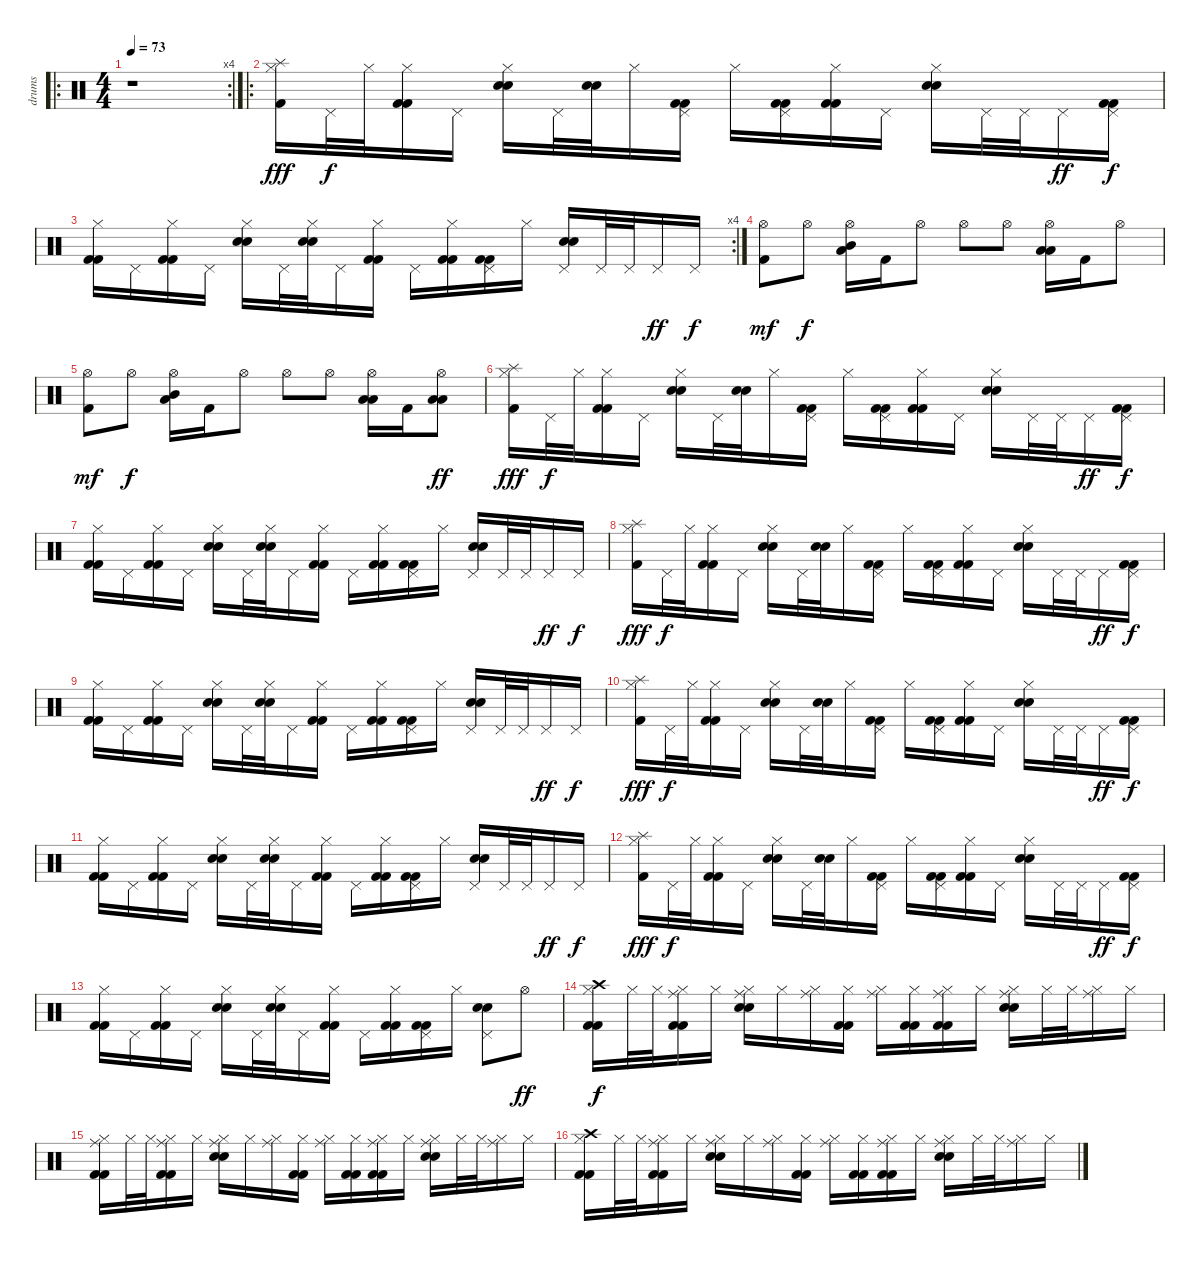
\track ("drums" "drums") {instrument percussion}
\staff {score}
\articulation defaults
\ro
\rc 4
\ts (4 4)
\tempo 73
\clef neutral
\ks c
r.1{dy fff} |
\ro
("Hi-Hat (closed)" "Kick (hit) 2" "Splash (hit)").16 "Pedal Hi-Hat (hit)".32{dy f} "Hi-Hat (closed)".32 ("Hi-Hat (closed)" "Kick (hit) 2" "Kick (hit) 2").16 "Pedal Hi-Hat (hit)".16 ("Hi-Hat (closed)" "Electric Snare (hit)" "Electric Snare (hit)").16 "Pedal Hi-Hat (hit)".32 ("Electric Snare (hit)" "Electric Snare (hit)").32 "Hi-Hat (closed)".16 ("Pedal Hi-Hat (hit)" "Kick (hit) 2" "Kick (hit) 2").16 "Hi-Hat (closed)".16 ("Pedal Hi-Hat (hit)" "Kick (hit) 2" "Kick (hit) 2").16 ("Hi-Hat (closed)" "Kick (hit) 2" "Kick (hit) 2").16 "Pedal Hi-Hat (hit)".16 ("Hi-Hat (closed)" "Electric Snare (hit)" "Electric Snare (hit)").16 "Pedal Hi-Hat (hit)".32 "Pedal Hi-Hat (hit)".32 "Pedal Hi-Hat (hit)".16{dy ff} ("Pedal Hi-Hat (hit)" "Kick (hit) 2" "Kick (hit) 2").16{dy f} |
\rc 4
("Hi-Hat (closed)" "Kick (hit) 2" "Kick (hit) 2").16 "Pedal Hi-Hat (hit)".16 ("Hi-Hat (closed)" "Kick (hit) 2" "Kick (hit) 2").16 "Pedal Hi-Hat (hit)".16 ("Hi-Hat (closed)" "Electric Snare (hit)" "Electric Snare (hit)").16 "Pedal Hi-Hat (hit)".32 ("Hi-Hat (closed)" "Electric Snare (hit)" "Electric Snare (hit)").32 "Pedal Hi-Hat (hit)".16 ("Hi-Hat (closed)" "Kick (hit) 2" "Kick (hit) 2").16 "Pedal Hi-Hat (hit)".16 ("Hi-Hat (closed)" "Kick (hit) 2" "Kick (hit) 2").16 ("Pedal Hi-Hat (hit)" "Kick (hit) 2" "Kick (hit) 2").16 "Hi-Hat (closed)".16 ("Pedal Hi-Hat (hit)" "Electric Snare (hit)" "Electric Snare (hit)").16 "Pedal Hi-Hat (hit)".32 "Pedal Hi-Hat (hit)".32 "Pedal Hi-Hat (hit)".16{dy ff} "Pedal Hi-Hat (hit)".16{dy f} |
("Hi-Hat (open)" "Kick (hit) 2").8{dy mf} "Hi-Hat (open)".8{dy f} ("Hi-Hat (open)" "Mid Tom (hit)" "Low Tom (hit)").16{bu 120} "Kick (hit) 2".16 "Hi-Hat (open)".8 "Hi-Hat (open)".8 "Hi-Hat (open)".8 ("Hi-Hat (open)" "Low Tom (hit)" "Low Floor Tom (hit)").16{bu 120} "Kick (hit) 2".16 "Hi-Hat (open)".8 |
("Hi-Hat (open)" "Kick (hit) 2").8{dy mf} "Hi-Hat (open)".8{dy f} ("Hi-Hat (open)" "Mid Tom (hit)" "Low Tom (hit)").16{bu 120} "Kick (hit) 2".16 "Hi-Hat (open)".8 "Hi-Hat (open)".8 "Hi-Hat (open)".8 ("Hi-Hat (open)" "Low Tom (hit)" "Low Floor Tom (hit)").16{bu 120} "Kick (hit) 2".16 ("Hi-Hat (open)" "Low Tom (hit)" "Low Floor Tom (hit)").8{bu 60 dy ff} |
("Hi-Hat (closed)" "Kick (hit) 2" "Splash (hit)").16{dy fff} "Pedal Hi-Hat (hit)".32{dy f} "Hi-Hat (closed)".32 ("Hi-Hat (closed)" "Kick (hit) 2" "Kick (hit) 2").16 "Pedal Hi-Hat (hit)".16 ("Hi-Hat (closed)" "Electric Snare (hit)" "Electric Snare (hit)").16 "Pedal Hi-Hat (hit)".32 ("Electric Snare (hit)" "Electric Snare (hit)").32 "Hi-Hat (closed)".16 ("Pedal Hi-Hat (hit)" "Kick (hit) 2" "Kick (hit) 2").16 "Hi-Hat (closed)".16 ("Pedal Hi-Hat (hit)" "Kick (hit) 2" "Kick (hit) 2").16 ("Hi-Hat (closed)" "Kick (hit) 2" "Kick (hit) 2").16 "Pedal Hi-Hat (hit)".16 ("Hi-Hat (closed)" "Electric Snare (hit)" "Electric Snare (hit)").16 "Pedal Hi-Hat (hit)".32 "Pedal Hi-Hat (hit)".32 "Pedal Hi-Hat (hit)".16{dy ff} ("Pedal Hi-Hat (hit)" "Kick (hit) 2" "Kick (hit) 2").16{dy f} |
("Hi-Hat (closed)" "Kick (hit) 2" "Kick (hit) 2").16 "Pedal Hi-Hat (hit)".16 ("Hi-Hat (closed)" "Kick (hit) 2" "Kick (hit) 2").16 "Pedal Hi-Hat (hit)".16 ("Hi-Hat (closed)" "Electric Snare (hit)" "Electric Snare (hit)").16 "Pedal Hi-Hat (hit)".32 ("Hi-Hat (closed)" "Electric Snare (hit)" "Electric Snare (hit)").32 "Pedal Hi-Hat (hit)".16 ("Hi-Hat (closed)" "Kick (hit) 2" "Kick (hit) 2").16 "Pedal Hi-Hat (hit)".16 ("Hi-Hat (closed)" "Kick (hit) 2" "Kick (hit) 2").16 ("Pedal Hi-Hat (hit)" "Kick (hit) 2" "Kick (hit) 2").16 "Hi-Hat (closed)".16 ("Pedal Hi-Hat (hit)" "Electric Snare (hit)" "Electric Snare (hit)").16 "Pedal Hi-Hat (hit)".32 "Pedal Hi-Hat (hit)".32 "Pedal Hi-Hat (hit)".16{dy ff} "Pedal Hi-Hat (hit)".16{dy f} |
("Hi-Hat (closed)" "Kick (hit) 2" "Splash (hit)").16{dy fff} "Pedal Hi-Hat (hit)".32{dy f} "Hi-Hat (closed)".32 ("Hi-Hat (closed)" "Kick (hit) 2" "Kick (hit) 2").16 "Pedal Hi-Hat (hit)".16 ("Hi-Hat (closed)" "Electric Snare (hit)" "Electric Snare (hit)").16 "Pedal Hi-Hat (hit)".32 ("Electric Snare (hit)" "Electric Snare (hit)").32 "Hi-Hat (closed)".16 ("Pedal Hi-Hat (hit)" "Kick (hit) 2" "Kick (hit) 2").16 "Hi-Hat (closed)".16 ("Pedal Hi-Hat (hit)" "Kick (hit) 2" "Kick (hit) 2").16 ("Hi-Hat (closed)" "Kick (hit) 2" "Kick (hit) 2").16 "Pedal Hi-Hat (hit)".16 ("Hi-Hat (closed)" "Electric Snare (hit)" "Electric Snare (hit)").16 "Pedal Hi-Hat (hit)".32 "Pedal Hi-Hat (hit)".32 "Pedal Hi-Hat (hit)".16{dy ff} ("Pedal Hi-Hat (hit)" "Kick (hit) 2" "Kick (hit) 2").16{dy f} |
("Hi-Hat (closed)" "Kick (hit) 2" "Kick (hit) 2").16 "Pedal Hi-Hat (hit)".16 ("Hi-Hat (closed)" "Kick (hit) 2" "Kick (hit) 2").16 "Pedal Hi-Hat (hit)".16 ("Hi-Hat (closed)" "Electric Snare (hit)" "Electric Snare (hit)").16 "Pedal Hi-Hat (hit)".32 ("Hi-Hat (closed)" "Electric Snare (hit)" "Electric Snare (hit)").32 "Pedal Hi-Hat (hit)".16 ("Hi-Hat (closed)" "Kick (hit) 2" "Kick (hit) 2").16 "Pedal Hi-Hat (hit)".16 ("Hi-Hat (closed)" "Kick (hit) 2" "Kick (hit) 2").16 ("Pedal Hi-Hat (hit)" "Kick (hit) 2" "Kick (hit) 2").16 "Hi-Hat (closed)".16 ("Pedal Hi-Hat (hit)" "Electric Snare (hit)" "Electric Snare (hit)").16 "Pedal Hi-Hat (hit)".32 "Pedal Hi-Hat (hit)".32 "Pedal Hi-Hat (hit)".16{dy ff} "Pedal Hi-Hat (hit)".16{dy f} |
("Hi-Hat (closed)" "Kick (hit) 2" "Splash (hit)").16{dy fff} "Pedal Hi-Hat (hit)".32{dy f} "Hi-Hat (closed)".32 ("Hi-Hat (closed)" "Kick (hit) 2" "Kick (hit) 2").16 "Pedal Hi-Hat (hit)".16 ("Hi-Hat (closed)" "Electric Snare (hit)" "Electric Snare (hit)").16 "Pedal Hi-Hat (hit)".32 ("Electric Snare (hit)" "Electric Snare (hit)").32 "Hi-Hat (closed)".16 ("Pedal Hi-Hat (hit)" "Kick (hit) 2" "Kick (hit) 2").16 "Hi-Hat (closed)".16 ("Pedal Hi-Hat (hit)" "Kick (hit) 2" "Kick (hit) 2").16 ("Hi-Hat (closed)" "Kick (hit) 2" "Kick (hit) 2").16 "Pedal Hi-Hat (hit)".16 ("Hi-Hat (closed)" "Electric Snare (hit)" "Electric Snare (hit)").16 "Pedal Hi-Hat (hit)".32 "Pedal Hi-Hat (hit)".32 "Pedal Hi-Hat (hit)".16{dy ff} ("Pedal Hi-Hat (hit)" "Kick (hit) 2" "Kick (hit) 2").16{dy f} |
("Hi-Hat (closed)" "Kick (hit) 2" "Kick (hit) 2").16 "Pedal Hi-Hat (hit)".16 ("Hi-Hat (closed)" "Kick (hit) 2" "Kick (hit) 2").16 "Pedal Hi-Hat (hit)".16 ("Hi-Hat (closed)" "Electric Snare (hit)" "Electric Snare (hit)").16 "Pedal Hi-Hat (hit)".32 ("Hi-Hat (closed)" "Electric Snare (hit)" "Electric Snare (hit)").32 "Pedal Hi-Hat (hit)".16 ("Hi-Hat (closed)" "Kick (hit) 2" "Kick (hit) 2").16 "Pedal Hi-Hat (hit)".16 ("Hi-Hat (closed)" "Kick (hit) 2" "Kick (hit) 2").16 ("Pedal Hi-Hat (hit)" "Kick (hit) 2" "Kick (hit) 2").16 "Hi-Hat (closed)".16 ("Pedal Hi-Hat (hit)" "Electric Snare (hit)" "Electric Snare (hit)").16 "Pedal Hi-Hat (hit)".32 "Pedal Hi-Hat (hit)".32 "Pedal Hi-Hat (hit)".16{dy ff} "Pedal Hi-Hat (hit)".16{dy f} |
("Hi-Hat (closed)" "Kick (hit) 2" "Splash (hit)").16{dy fff} "Pedal Hi-Hat (hit)".32{dy f} "Hi-Hat (closed)".32 ("Hi-Hat (closed)" "Kick (hit) 2" "Kick (hit) 2").16 "Pedal Hi-Hat (hit)".16 ("Hi-Hat (closed)" "Electric Snare (hit)" "Electric Snare (hit)").16 "Pedal Hi-Hat (hit)".32 ("Electric Snare (hit)" "Electric Snare (hit)").32 "Hi-Hat (closed)".16 ("Pedal Hi-Hat (hit)" "Kick (hit) 2" "Kick (hit) 2").16 "Hi-Hat (closed)".16 ("Pedal Hi-Hat (hit)" "Kick (hit) 2" "Kick (hit) 2").16 ("Hi-Hat (closed)" "Kick (hit) 2" "Kick (hit) 2").16 "Pedal Hi-Hat (hit)".16 ("Hi-Hat (closed)" "Electric Snare (hit)" "Electric Snare (hit)").16 "Pedal Hi-Hat (hit)".32 "Pedal Hi-Hat (hit)".32 "Pedal Hi-Hat (hit)".16{dy ff} ("Pedal Hi-Hat (hit)" "Kick (hit) 2" "Kick (hit) 2").16{dy f} |
("Hi-Hat (closed)" "Kick (hit) 2" "Kick (hit) 2").16 "Pedal Hi-Hat (hit)".16 ("Hi-Hat (closed)" "Kick (hit) 2" "Kick (hit) 2").16 "Pedal Hi-Hat (hit)".16 ("Hi-Hat (closed)" "Electric Snare (hit)" "Electric Snare (hit)").16 "Pedal Hi-Hat (hit)".32 ("Hi-Hat (closed)" "Electric Snare (hit)" "Electric Snare (hit)").32 "Pedal Hi-Hat (hit)".16 ("Hi-Hat (closed)" "Kick (hit) 2" "Kick (hit) 2").16 "Pedal Hi-Hat (hit)".16 ("Hi-Hat (closed)" "Kick (hit) 2" "Kick (hit) 2").16 ("Pedal Hi-Hat (hit)" "Kick (hit) 2" "Kick (hit) 2").16 "Hi-Hat (closed)".16 ("Pedal Hi-Hat (hit)" "Electric Snare (hit)" "Electric Snare (hit)").8 "Hi-Hat (open)".8{dy ff} |
("Hi-Hat (closed)" "Crash high (hit)" "Kick (hit) 2" "Kick (hit) 2").16{dy f} "Hi-Hat (closed)".32 "Hi-Hat (closed)".32 ("Hi-Hat (closed)" "Ride (middle)" "Kick (hit) 2" "Kick (hit) 2").16 "Hi-Hat (closed)".16 ("Hi-Hat (closed)" "Ride (middle)" "Electric Snare (hit)" "Electric Snare (hit)").16 "Hi-Hat (closed)".16 ("Hi-Hat (closed)" "Ride (middle)").16 ("Hi-Hat (closed)" "Kick (hit) 2" "Kick (hit) 2").16 ("Hi-Hat (closed)" "Ride (middle)").16 ("Hi-Hat (closed)" "Kick (hit) 2" "Kick (hit) 2").16 ("Hi-Hat (closed)" "Ride (middle)" "Kick (hit) 2" "Kick (hit) 2").16 "Hi-Hat (closed)".16 ("Hi-Hat (closed)" "Ride (middle)" "Electric Snare (hit)" "Electric Snare (hit)").16 "Hi-Hat (closed)".32 "Hi-Hat (closed)".32 ("Hi-Hat (closed)" "Ride (middle)").16 "Hi-Hat (closed)".16 |
("Hi-Hat (closed)" "Ride (middle)" "Kick (hit) 2" "Kick (hit) 2").16 "Hi-Hat (closed)".32 "Hi-Hat (closed)".32 ("Hi-Hat (closed)" "Ride (middle)" "Kick (hit) 2" "Kick (hit) 2").16 "Hi-Hat (closed)".16 ("Hi-Hat (closed)" "Ride (middle)" "Electric Snare (hit)" "Electric Snare (hit)").16 "Hi-Hat (closed)".16 ("Hi-Hat (closed)" "Ride (middle)").16 ("Hi-Hat (closed)" "Kick (hit) 2" "Kick (hit) 2").16 ("Hi-Hat (closed)" "Ride (middle)").16 ("Hi-Hat (closed)" "Kick (hit) 2" "Kick (hit) 2").16 ("Hi-Hat (closed)" "Ride (middle)" "Kick (hit) 2" "Kick (hit) 2").16 "Hi-Hat (closed)".16 ("Hi-Hat (closed)" "Ride (middle)" "Electric Snare (hit)" "Electric Snare (hit)").16 "Hi-Hat (closed)".32 "Hi-Hat (closed)".32 ("Hi-Hat (closed)" "Ride (middle)").16 "Hi-Hat (closed)".16 |
("Hi-Hat (closed)" "Crash high (hit)" "Kick (hit) 2" "Kick (hit) 2").16 "Hi-Hat (closed)".32 "Hi-Hat (closed)".32 ("Hi-Hat (closed)" "Ride (middle)" "Kick (hit) 2" "Kick (hit) 2").16 "Hi-Hat (closed)".16 ("Hi-Hat (closed)" "Ride (middle)" "Electric Snare (hit)" "Electric Snare (hit)").16 "Hi-Hat (closed)".16 ("Hi-Hat (closed)" "Ride (middle)").16 ("Hi-Hat (closed)" "Kick (hit) 2" "Kick (hit) 2").16 ("Hi-Hat (closed)" "Ride (middle)").16 ("Hi-Hat (closed)" "Kick (hit) 2" "Kick (hit) 2").16 ("Hi-Hat (closed)" "Ride (middle)" "Kick (hit) 2" "Kick (hit) 2").16 "Hi-Hat (closed)".16 ("Hi-Hat (closed)" "Ride (middle)" "Electric Snare (hit)" "Electric Snare (hit)").16 "Hi-Hat (closed)".32 "Hi-Hat (closed)".32 ("Hi-Hat (closed)" "Ride (middle)").16 "Hi-Hat (closed)".16
